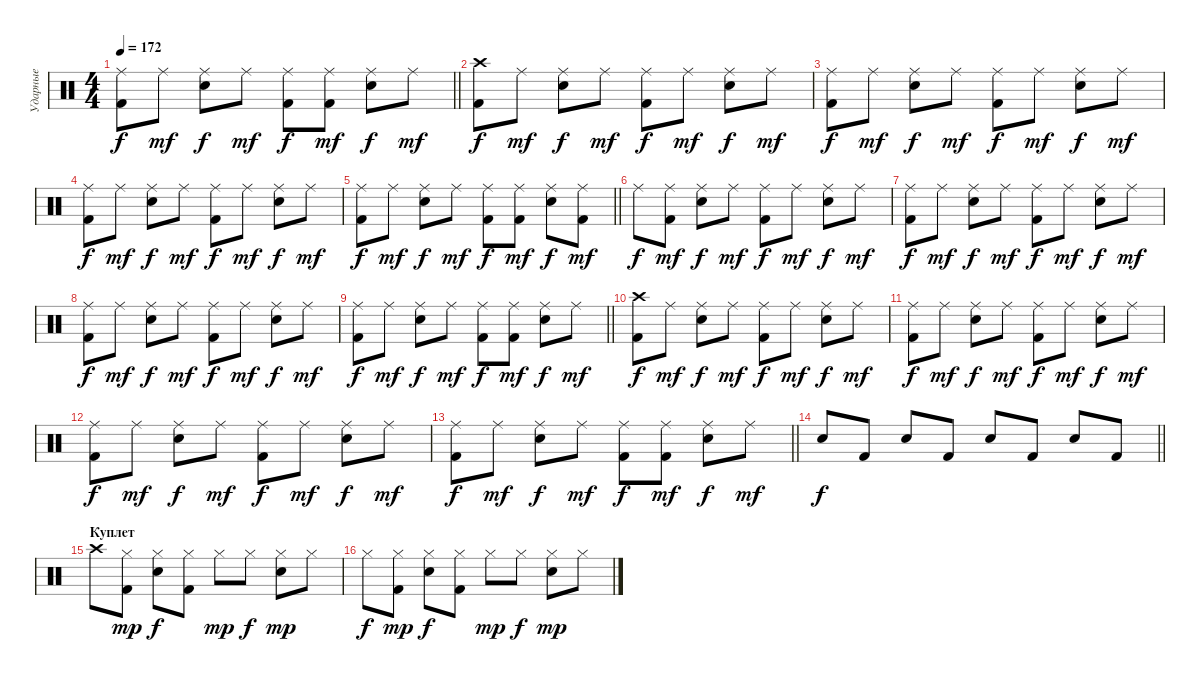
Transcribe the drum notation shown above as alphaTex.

\track ("Ударные" "Ударные") {instrument percussion}
\staff {score}
\articulation defaults
\ts (4 4)
\tempo 172
\clef neutral
\barLineRight lightlight
\ks c
("Ride (middle)" "Kick (hit) 2").8{dy f} "Ride (middle)".8{dy mf} ("Ride (middle)" "Snare (hit) 2").8{dy f} "Ride (middle)".8{dy mf} ("Ride (middle)" "Kick (hit) 2").8{dy f} ("Ride (middle)" "Kick (hit) 2").8{dy mf} ("Ride (middle)" "Snare (hit) 2").8{dy f} "Ride (middle)".8{dy mf} |
("Crash high (hit)" "Kick (hit) 2").8{dy f} "Ride (middle)".8{dy mf} ("Ride (middle)" "Snare (hit) 2").8{dy f} "Ride (middle)".8{dy mf} ("Ride (middle)" "Kick (hit) 2").8{dy f} "Ride (middle)".8{dy mf} ("Ride (middle)" "Snare (hit) 2").8{dy f} "Ride (middle)".8{dy mf} |
("Ride (middle)" "Kick (hit) 2").8{dy f} "Ride (middle)".8{dy mf} ("Ride (middle)" "Snare (hit) 2").8{dy f} "Ride (middle)".8{dy mf} ("Ride (middle)" "Kick (hit) 2").8{dy f} "Ride (middle)".8{dy mf} ("Ride (middle)" "Snare (hit) 2").8{dy f} "Ride (middle)".8{dy mf} |
("Ride (middle)" "Kick (hit) 2").8{dy f} "Ride (middle)".8{dy mf} ("Ride (middle)" "Snare (hit) 2").8{dy f} "Ride (middle)".8{dy mf} ("Ride (middle)" "Kick (hit) 2").8{dy f} "Ride (middle)".8{dy mf} ("Ride (middle)" "Snare (hit) 2").8{dy f} "Ride (middle)".8{dy mf} |
\barLineRight lightlight
("Ride (middle)" "Kick (hit) 2").8{dy f} "Ride (middle)".8{dy mf} ("Ride (middle)" "Snare (hit) 2").8{dy f} "Ride (middle)".8{dy mf} ("Ride (middle)" "Kick (hit) 2").8{dy f} ("Ride (middle)" "Kick (hit) 2").8{dy mf} ("Ride (middle)" "Snare (hit) 2").8{dy f} ("Ride (middle)" "Kick (hit) 2").8{dy mf} |
"Ride (middle)".8{dy f} ("Ride (middle)" "Kick (hit) 2").8{dy mf} ("Ride (middle)" "Snare (hit) 2").8{dy f} "Ride (middle)".8{dy mf} ("Ride (middle)" "Kick (hit) 2").8{dy f} "Ride (middle)".8{dy mf} ("Ride (middle)" "Snare (hit) 2").8{dy f} "Ride (middle)".8{dy mf} |
("Ride (middle)" "Kick (hit) 2").8{dy f} "Ride (middle)".8{dy mf} ("Ride (middle)" "Snare (hit) 2").8{dy f} "Ride (middle)".8{dy mf} ("Ride (middle)" "Kick (hit) 2").8{dy f} "Ride (middle)".8{dy mf} ("Ride (middle)" "Snare (hit) 2").8{dy f} "Ride (middle)".8{dy mf} |
("Ride (middle)" "Kick (hit) 2").8{dy f} "Ride (middle)".8{dy mf} ("Ride (middle)" "Snare (hit) 2").8{dy f} "Ride (middle)".8{dy mf} ("Ride (middle)" "Kick (hit) 2").8{dy f} "Ride (middle)".8{dy mf} ("Ride (middle)" "Snare (hit) 2").8{dy f} "Ride (middle)".8{dy mf} |
\barLineRight lightlight
("Ride (middle)" "Kick (hit) 2").8{dy f} "Ride (middle)".8{dy mf} ("Ride (middle)" "Snare (hit) 2").8{dy f} "Ride (middle)".8{dy mf} ("Ride (middle)" "Kick (hit) 2").8{dy f} ("Ride (middle)" "Kick (hit) 2").8{dy mf} ("Ride (middle)" "Snare (hit) 2").8{dy f} "Ride (middle)".8{dy mf} |
("Crash high (hit)" "Kick (hit) 2").8{dy f} "Ride (middle)".8{dy mf} ("Ride (middle)" "Snare (hit) 2").8{dy f} "Ride (middle)".8{dy mf} ("Ride (middle)" "Kick (hit) 2").8{dy f} "Ride (middle)".8{dy mf} ("Ride (middle)" "Snare (hit) 2").8{dy f} "Ride (middle)".8{dy mf} |
("Ride (middle)" "Kick (hit) 2").8{dy f} "Ride (middle)".8{dy mf} ("Ride (middle)" "Snare (hit) 2").8{dy f} "Ride (middle)".8{dy mf} ("Ride (middle)" "Kick (hit) 2").8{dy f} "Ride (middle)".8{dy mf} ("Ride (middle)" "Snare (hit) 2").8{dy f} "Ride (middle)".8{dy mf} |
("Ride (middle)" "Kick (hit) 2").8{dy f} "Ride (middle)".8{dy mf} ("Ride (middle)" "Snare (hit) 2").8{dy f} "Ride (middle)".8{dy mf} ("Ride (middle)" "Kick (hit) 2").8{dy f} "Ride (middle)".8{dy mf} ("Ride (middle)" "Snare (hit) 2").8{dy f} "Ride (middle)".8{dy mf} |
\barLineRight lightlight
("Ride (middle)" "Kick (hit) 2").8{dy f} "Ride (middle)".8{dy mf} ("Ride (middle)" "Snare (hit) 2").8{dy f} "Ride (middle)".8{dy mf} ("Ride (middle)" "Kick (hit) 2").8{dy f} ("Ride (middle)" "Kick (hit) 2").8{dy mf} ("Ride (middle)" "Snare (hit) 2").8{dy f} "Ride (middle)".8{dy mf} |
\barLineRight lightlight "Snare (hit) 2".8{dy f} "Kick (hit) 2".8 "Snare (hit) 2".8 "Kick (hit) 2".8 "Snare (hit) 2".8 "Kick (hit) 2".8 "Snare (hit) 2".8 "Kick (hit) 2".8
|
\section ("" "Куплет")
"Crash high (hit)".8 ("Hi-Hat (closed)" "Kick (hit) 2").8{dy mp} ("Hi-Hat (closed)" "Snare (hit) 2").8{dy f} ("Hi-Hat (closed)" "Kick (hit) 2").8 "Hi-Hat (closed)".8{dy mp} "Hi-Hat (closed)".8{dy f} ("Hi-Hat (closed)" "Snare (hit) 2").8{dy mp} "Hi-Hat (closed)".8 |
"Hi-Hat (closed)".8{dy f} ("Hi-Hat (closed)" "Kick (hit) 2").8{dy mp} ("Hi-Hat (closed)" "Snare (hit) 2").8{dy f} ("Hi-Hat (closed)" "Kick (hit) 2").8 "Hi-Hat (closed)".8{dy mp} "Hi-Hat (closed)".8{dy f} ("Hi-Hat (closed)" "Snare (hit) 2").8{dy mp} "Hi-Hat (closed)".8
